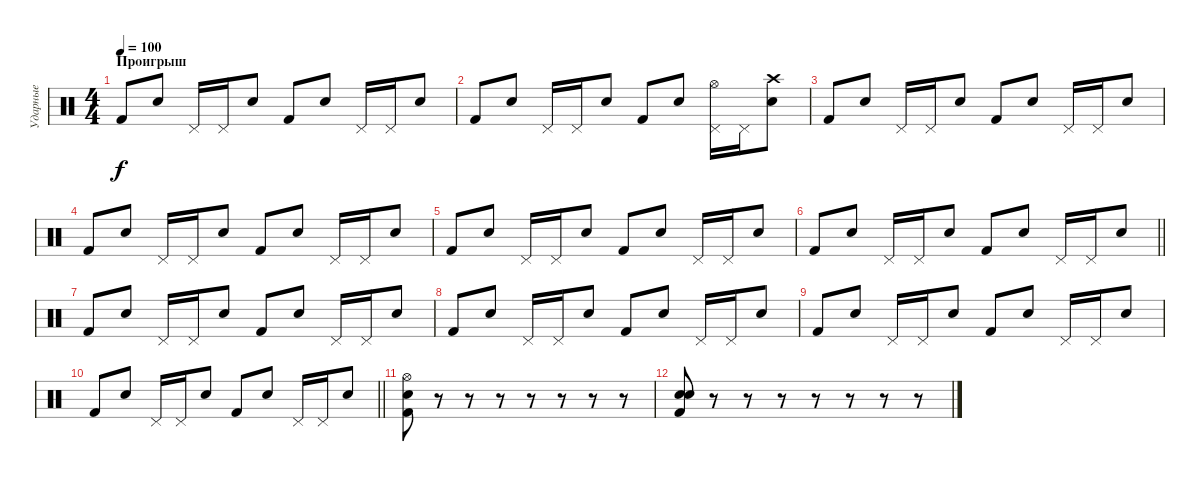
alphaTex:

\track ("Ударные" "Ударные") {instrument percussion}
\staff {score}
\articulation defaults
\ts (4 4)
\section ("" "Проигрыш")
\tempo 100
\clef neutral
\ks c "Kick (hit) 2".8{dy f} "Electric Snare (hit)".8 "Pedal Hi-Hat (hit)".16 "Pedal Hi-Hat (hit)".16 "Electric Snare (hit)".8 "Kick (hit) 2".8 "Electric Snare (hit)".8 "Pedal Hi-Hat (hit)".16 "Pedal Hi-Hat (hit)".16 "Electric Snare (hit)".8
|
"Kick (hit) 2".8 "Electric Snare (hit)".8 "Pedal Hi-Hat (hit)".16 "Pedal Hi-Hat (hit)".16 "Electric Snare (hit)".8 "Kick (hit) 2".8 "Electric Snare (hit)".8 ("Pedal Hi-Hat (hit)" "Hi-Hat (open)").16 "Pedal Hi-Hat (hit)".16 ("Crash high (hit)" "Electric Snare (hit)").8 |
"Kick (hit) 2".8 "Electric Snare (hit)".8 "Pedal Hi-Hat (hit)".16 "Pedal Hi-Hat (hit)".16 "Electric Snare (hit)".8 "Kick (hit) 2".8 "Electric Snare (hit)".8 "Pedal Hi-Hat (hit)".16 "Pedal Hi-Hat (hit)".16 "Electric Snare (hit)".8 |
"Kick (hit) 2".8 "Electric Snare (hit)".8 "Pedal Hi-Hat (hit)".16 "Pedal Hi-Hat (hit)".16 "Electric Snare (hit)".8 "Kick (hit) 2".8 "Electric Snare (hit)".8 "Pedal Hi-Hat (hit)".16 "Pedal Hi-Hat (hit)".16 "Electric Snare (hit)".8 |
"Kick (hit) 2".8 "Electric Snare (hit)".8 "Pedal Hi-Hat (hit)".16 "Pedal Hi-Hat (hit)".16 "Electric Snare (hit)".8 "Kick (hit) 2".8 "Electric Snare (hit)".8 "Pedal Hi-Hat (hit)".16 "Pedal Hi-Hat (hit)".16 "Electric Snare (hit)".8 |
\barLineRight lightlight "Kick (hit) 2".8 "Electric Snare (hit)".8 "Pedal Hi-Hat (hit)".16 "Pedal Hi-Hat (hit)".16 "Electric Snare (hit)".8 "Kick (hit) 2".8 "Electric Snare (hit)".8 "Pedal Hi-Hat (hit)".16 "Pedal Hi-Hat (hit)".16 "Electric Snare (hit)".8
|
"Kick (hit) 2".8 "Electric Snare (hit)".8 "Pedal Hi-Hat (hit)".16 "Pedal Hi-Hat (hit)".16 "Electric Snare (hit)".8 "Kick (hit) 2".8 "Electric Snare (hit)".8 "Pedal Hi-Hat (hit)".16 "Pedal Hi-Hat (hit)".16 "Electric Snare (hit)".8 |
"Kick (hit) 2".8 "Electric Snare (hit)".8 "Pedal Hi-Hat (hit)".16 "Pedal Hi-Hat (hit)".16 "Electric Snare (hit)".8 "Kick (hit) 2".8 "Electric Snare (hit)".8 "Pedal Hi-Hat (hit)".16 "Pedal Hi-Hat (hit)".16 "Electric Snare (hit)".8 |
"Kick (hit) 2".8 "Electric Snare (hit)".8 "Pedal Hi-Hat (hit)".16 "Pedal Hi-Hat (hit)".16 "Electric Snare (hit)".8 "Kick (hit) 2".8 "Electric Snare (hit)".8 "Pedal Hi-Hat (hit)".16 "Pedal Hi-Hat (hit)".16 "Electric Snare (hit)".8 |
\barLineRight lightlight "Kick (hit) 2".8 "Electric Snare (hit)".8 "Pedal Hi-Hat (hit)".16 "Pedal Hi-Hat (hit)".16 "Electric Snare (hit)".8 "Kick (hit) 2".8 "Electric Snare (hit)".8 "Pedal Hi-Hat (hit)".16 "Pedal Hi-Hat (hit)".16 "Electric Snare (hit)".8
|
("Hi-Hat (open)" "Kick (hit) 2" "Electric Snare (hit)").8 r.8 r.8 r.8 r.8 r.8 r.8 r.8 |
("Electric Snare (hit)" "Kick (hit) 2" "Snare (hit) 2").8 r.8 r.8 r.8 r.8 r.8 r.8 r.8
